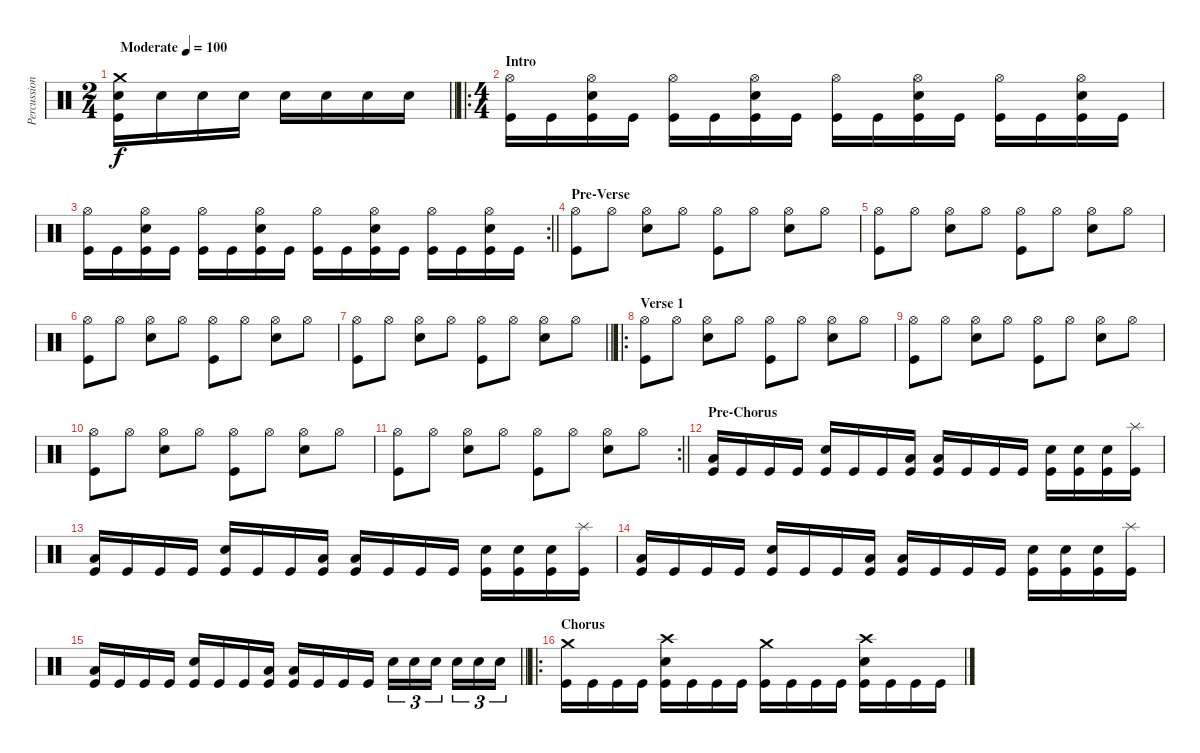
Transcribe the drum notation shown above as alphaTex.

\track ("Percussion" "Percussion") {instrument percussion}
\staff {score}
\articulation defaults
\ts (2 4)
\tempo (100 "Moderate")
\clef neutral
\barLineRight lightlight
\ks c
("Crash medium (hit)" "Snare (hit) 2" "Kick (hit)").16{dy f} "Snare (hit) 2".16 "Snare (hit) 2".16 "Snare (hit) 2".16 "Snare (hit) 2".16 "Snare (hit) 2".16 "Snare (hit) 2".16 "Snare (hit) 2".16 |
\ro
\ts (4 4)
\section ("" "Intro")
("Hi-Hat (open)" "Kick (hit)").16 "Kick (hit)".16 ("Hi-Hat (open)" "Snare (hit) 2" "Kick (hit)").16 "Kick (hit)".16 ("Hi-Hat (open)" "Kick (hit)").16 "Kick (hit)".16 ("Hi-Hat (open)" "Snare (hit) 2" "Kick (hit)").16 "Kick (hit)".16 ("Hi-Hat (open)" "Kick (hit)").16 "Kick (hit)".16 ("Hi-Hat (open)" "Snare (hit) 2" "Kick (hit)").16 "Kick (hit)".16 ("Hi-Hat (open)" "Kick (hit)").16 "Kick (hit)".16 ("Hi-Hat (open)" "Snare (hit) 2" "Kick (hit)").16 "Kick (hit)".16 |
\rc 2
\barLineRight lightlight
("Hi-Hat (open)" "Kick (hit)").16 "Kick (hit)".16 ("Hi-Hat (open)" "Snare (hit) 2" "Kick (hit)").16 "Kick (hit)".16 ("Hi-Hat (open)" "Kick (hit)").16 "Kick (hit)".16 ("Hi-Hat (open)" "Snare (hit) 2" "Kick (hit)").16 "Kick (hit)".16 ("Hi-Hat (open)" "Kick (hit)").16 "Kick (hit)".16 ("Hi-Hat (open)" "Snare (hit) 2" "Kick (hit)").16 "Kick (hit)".16 ("Hi-Hat (open)" "Kick (hit)").16 "Kick (hit)".16 ("Hi-Hat (open)" "Snare (hit) 2" "Kick (hit)").16 "Kick (hit)".16 |
\section ("" "Pre-Verse")
("Hi-Hat (open)" "Kick (hit)").8 "Hi-Hat (open)".8 ("Hi-Hat (open)" "Snare (hit) 2").8 "Hi-Hat (open)".8 ("Hi-Hat (open)" "Kick (hit)").8 "Hi-Hat (open)".8 ("Hi-Hat (open)" "Snare (hit) 2").8 "Hi-Hat (open)".8 |
("Hi-Hat (open)" "Kick (hit)").8 "Hi-Hat (open)".8 ("Hi-Hat (open)" "Snare (hit) 2").8 "Hi-Hat (open)".8 ("Hi-Hat (open)" "Kick (hit)").8 "Hi-Hat (open)".8 ("Hi-Hat (open)" "Snare (hit) 2").8 "Hi-Hat (open)".8 |
("Hi-Hat (open)" "Kick (hit)").8 "Hi-Hat (open)".8 ("Hi-Hat (open)" "Snare (hit) 2").8 "Hi-Hat (open)".8 ("Hi-Hat (open)" "Kick (hit)").8 "Hi-Hat (open)".8 ("Hi-Hat (open)" "Snare (hit) 2").8 "Hi-Hat (open)".8 |
\barLineRight lightlight
("Hi-Hat (open)" "Kick (hit)").8 "Hi-Hat (open)".8 ("Hi-Hat (open)" "Snare (hit) 2").8 "Hi-Hat (open)".8 ("Hi-Hat (open)" "Kick (hit)").8 "Hi-Hat (open)".8 ("Hi-Hat (open)" "Snare (hit) 2").8 "Hi-Hat (open)".8 |
\ro
\section ("" "Verse 1")
("Hi-Hat (open)" "Kick (hit)").8 "Hi-Hat (open)".8 ("Hi-Hat (open)" "Snare (hit) 2").8 "Hi-Hat (open)".8 ("Hi-Hat (open)" "Kick (hit)").8 "Hi-Hat (open)".8 ("Hi-Hat (open)" "Snare (hit) 2").8 "Hi-Hat (open)".8 |
("Hi-Hat (open)" "Kick (hit)").8 "Hi-Hat (open)".8 ("Hi-Hat (open)" "Snare (hit) 2").8 "Hi-Hat (open)".8 ("Hi-Hat (open)" "Kick (hit)").8 "Hi-Hat (open)".8 ("Hi-Hat (open)" "Snare (hit) 2").8 "Hi-Hat (open)".8 |
("Hi-Hat (open)" "Kick (hit)").8 "Hi-Hat (open)".8 ("Hi-Hat (open)" "Snare (hit) 2").8 "Hi-Hat (open)".8 ("Hi-Hat (open)" "Kick (hit)").8 "Hi-Hat (open)".8 ("Hi-Hat (open)" "Snare (hit) 2").8 "Hi-Hat (open)".8 |
\rc 2
\barLineRight lightlight
("Hi-Hat (open)" "Kick (hit)").8 "Hi-Hat (open)".8 ("Hi-Hat (open)" "Snare (hit) 2").8 "Hi-Hat (open)".8 ("Hi-Hat (open)" "Kick (hit)").8 "Hi-Hat (open)".8 ("Hi-Hat (open)" "Snare (hit) 2").8 "Hi-Hat (open)".8 |
\section ("" "Pre-Chorus")
("Low Floor Tom (hit)" "Kick (hit)").16 "Kick (hit)".16 "Kick (hit)".16 "Kick (hit)".16 ("Snare (hit) 2" "Kick (hit)").16 "Kick (hit)".16 "Kick (hit)".16 ("Low Floor Tom (hit)" "Kick (hit)").16 ("Low Floor Tom (hit)" "Kick (hit)").16 "Kick (hit)".16 "Kick (hit)".16 "Kick (hit)".16 ("Snare (hit) 2" "Kick (hit)").16 ("Snare (hit) 2" "Kick (hit)").16 ("Snare (hit) 2" "Kick (hit)").16 ("Splash (hit)" "Kick (hit)").16 |
("Low Floor Tom (hit)" "Kick (hit)").16 "Kick (hit)".16 "Kick (hit)".16 "Kick (hit)".16 ("Snare (hit) 2" "Kick (hit)").16 "Kick (hit)".16 "Kick (hit)".16 ("Low Floor Tom (hit)" "Kick (hit)").16 ("Low Floor Tom (hit)" "Kick (hit)").16 "Kick (hit)".16 "Kick (hit)".16 "Kick (hit)".16 ("Snare (hit) 2" "Kick (hit)").16 ("Snare (hit) 2" "Kick (hit)").16 ("Snare (hit) 2" "Kick (hit)").16 ("Splash (hit)" "Kick (hit)").16 |
("Low Floor Tom (hit)" "Kick (hit)").16 "Kick (hit)".16 "Kick (hit)".16 "Kick (hit)".16 ("Snare (hit) 2" "Kick (hit)").16 "Kick (hit)".16 "Kick (hit)".16 ("Low Floor Tom (hit)" "Kick (hit)").16 ("Low Floor Tom (hit)" "Kick (hit)").16 "Kick (hit)".16 "Kick (hit)".16 "Kick (hit)".16 ("Snare (hit) 2" "Kick (hit)").16 ("Snare (hit) 2" "Kick (hit)").16 ("Snare (hit) 2" "Kick (hit)").16 ("Splash (hit)" "Kick (hit)").16 |
\barLineRight lightlight
("Low Floor Tom (hit)" "Kick (hit)").16 "Kick (hit)".16 "Kick (hit)".16 "Kick (hit)".16 ("Snare (hit) 2" "Kick (hit)").16 "Kick (hit)".16 "Kick (hit)".16 ("Low Floor Tom (hit)" "Kick (hit)").16 ("Low Floor Tom (hit)" "Kick (hit)").16 "Kick (hit)".16 "Kick (hit)".16 "Kick (hit)".16 "Snare (hit) 2".16{tu (3 2)} "Snare (hit) 2".16{tu (3 2)} "Snare (hit) 2".16{tu (3 2) beam splitsecondary} "Snare (hit) 2".16{tu (3 2)} "Snare (hit) 2".16{tu (3 2)} "Snare (hit) 2".16{tu (3 2)} |
\ro
\section ("" "Chorus")
("Crash medium (hit)" "Kick (hit)").16 "Kick (hit)".16 "Kick (hit)".16 "Kick (hit)".16 ("Crash high (hit)" "Snare (hit) 2" "Kick (hit)").16 "Kick (hit)".16 "Kick (hit)".16 "Kick (hit)".16 ("Crash medium (hit)" "Kick (hit)").16 "Kick (hit)".16 "Kick (hit)".16 "Kick (hit)".16 ("Crash high (hit)" "Snare (hit) 2" "Kick (hit)").16 "Kick (hit)".16 "Kick (hit)".16 "Kick (hit)".16
